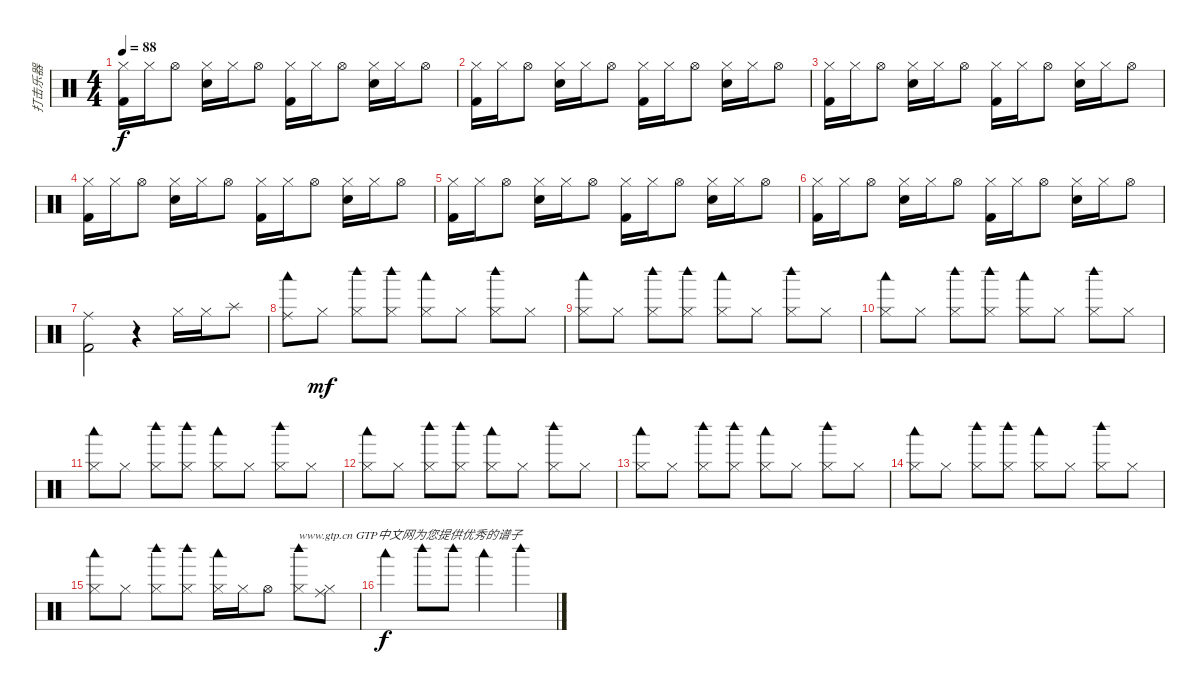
\track ("打击乐器" "打击乐器") {instrument percussion}
\staff {score}
\articulation defaults
\ts (4 4)
\tempo 88
\clef neutral
\ks c
("Hi-Hat (closed)" "Kick (hit) 2").16{dy f} "Hi-Hat (closed)".16 "Hi-Hat (open)".8 ("Hi-Hat (closed)" "Snare (hit) 2").16 "Hi-Hat (closed)".16 "Hi-Hat (open)".8 ("Hi-Hat (closed)" "Kick (hit) 2").16 "Hi-Hat (closed)".16 "Hi-Hat (open)".8 ("Hi-Hat (closed)" "Snare (hit) 2").16 "Hi-Hat (closed)".16 "Hi-Hat (open)".8 |
("Hi-Hat (closed)" "Kick (hit) 2").16 "Hi-Hat (closed)".16 "Hi-Hat (open)".8 ("Hi-Hat (closed)" "Snare (hit) 2").16 "Hi-Hat (closed)".16 "Hi-Hat (open)".8 ("Hi-Hat (closed)" "Kick (hit) 2").16 "Hi-Hat (closed)".16 "Hi-Hat (open)".8 ("Hi-Hat (closed)" "Snare (hit) 2").16 "Hi-Hat (closed)".16 "Hi-Hat (open)".8 |
("Hi-Hat (closed)" "Kick (hit) 2").16 "Hi-Hat (closed)".16 "Hi-Hat (open)".8 ("Hi-Hat (closed)" "Snare (hit) 2").16 "Hi-Hat (closed)".16 "Hi-Hat (open)".8 ("Hi-Hat (closed)" "Kick (hit) 2").16 "Hi-Hat (closed)".16 "Hi-Hat (open)".8 ("Hi-Hat (closed)" "Snare (hit) 2").16 "Hi-Hat (closed)".16 "Hi-Hat (open)".8 |
("Hi-Hat (closed)" "Kick (hit) 2").16 "Hi-Hat (closed)".16 "Hi-Hat (open)".8 ("Hi-Hat (closed)" "Snare (hit) 2").16 "Hi-Hat (closed)".16 "Hi-Hat (open)".8 ("Hi-Hat (closed)" "Kick (hit) 2").16 "Hi-Hat (closed)".16 "Hi-Hat (open)".8 ("Hi-Hat (closed)" "Snare (hit) 2").16 "Hi-Hat (closed)".16 "Hi-Hat (open)".8 |
("Hi-Hat (closed)" "Kick (hit) 2").16 "Hi-Hat (closed)".16 "Hi-Hat (open)".8 ("Hi-Hat (closed)" "Snare (hit) 2").16 "Hi-Hat (closed)".16 "Hi-Hat (open)".8 ("Hi-Hat (closed)" "Kick (hit) 2").16 "Hi-Hat (closed)".16 "Hi-Hat (open)".8 ("Hi-Hat (closed)" "Snare (hit) 2").16 "Hi-Hat (closed)".16 "Hi-Hat (open)".8 |
("Hi-Hat (closed)" "Kick (hit) 2").16 "Hi-Hat (closed)".16 "Hi-Hat (open)".8 ("Hi-Hat (closed)" "Snare (hit) 2").16 "Hi-Hat (closed)".16 "Hi-Hat (open)".8 ("Hi-Hat (closed)" "Kick (hit) 2").16 "Hi-Hat (closed)".16 "Hi-Hat (open)".8 ("Hi-Hat (closed)" "Snare (hit) 2").16 "Hi-Hat (closed)".16 "Hi-Hat (open)".8 |
("Ride (middle)" "Kick (hit) 2").2 r.4 "Hi-Hat (closed)".16 "Hi-Hat (closed)".16 "Splash (hit)".8 |
("Ride (middle)" "Woodblock low (hit)").8 "Hi-Hat (closed)".8{dy mf} ("Hi-Hat (closed)" "Woodblock high (hit)").8 ("Hi-Hat (closed)" "Woodblock high (hit)").8 ("Hi-Hat (closed)" "Woodblock low (hit)").8 "Hi-Hat (closed)".8 ("Hi-Hat (closed)" "Woodblock high (hit)").8 "Hi-Hat (closed)".8 |
("Hi-Hat (closed)" "Woodblock low (hit)").8 "Hi-Hat (closed)".8 ("Hi-Hat (closed)" "Woodblock high (hit)").8 ("Hi-Hat (closed)" "Woodblock high (hit)").8 ("Hi-Hat (closed)" "Woodblock low (hit)").8 "Hi-Hat (closed)".8 ("Hi-Hat (closed)" "Woodblock high (hit)").8 "Hi-Hat (closed)".8 |
("Hi-Hat (closed)" "Woodblock low (hit)").8 "Hi-Hat (closed)".8 ("Hi-Hat (closed)" "Woodblock high (hit)").8 ("Hi-Hat (closed)" "Woodblock high (hit)").8 ("Hi-Hat (closed)" "Woodblock low (hit)").8 "Hi-Hat (closed)".8 ("Hi-Hat (closed)" "Woodblock high (hit)").8 "Hi-Hat (closed)".8 |
("Hi-Hat (closed)" "Woodblock low (hit)").8 "Hi-Hat (closed)".8 ("Hi-Hat (closed)" "Woodblock high (hit)").8 ("Hi-Hat (closed)" "Woodblock high (hit)").8 ("Hi-Hat (closed)" "Woodblock low (hit)").8 "Hi-Hat (closed)".8 ("Hi-Hat (closed)" "Woodblock high (hit)").8 "Hi-Hat (closed)".8 |
("Hi-Hat (closed)" "Woodblock low (hit)").8 "Hi-Hat (closed)".8 ("Hi-Hat (closed)" "Woodblock high (hit)").8 ("Hi-Hat (closed)" "Woodblock high (hit)").8 ("Hi-Hat (closed)" "Woodblock low (hit)").8 "Hi-Hat (closed)".8 ("Hi-Hat (closed)" "Woodblock high (hit)").8 "Hi-Hat (closed)".8 |
("Hi-Hat (closed)" "Woodblock low (hit)").8 "Hi-Hat (closed)".8 ("Hi-Hat (closed)" "Woodblock high (hit)").8 ("Hi-Hat (closed)" "Woodblock high (hit)").8 ("Hi-Hat (closed)" "Woodblock low (hit)").8 "Hi-Hat (closed)".8 ("Hi-Hat (closed)" "Woodblock high (hit)").8 "Hi-Hat (closed)".8 |
("Hi-Hat (closed)" "Woodblock low (hit)").8 "Hi-Hat (closed)".8 ("Hi-Hat (closed)" "Woodblock high (hit)").8 ("Hi-Hat (closed)" "Woodblock high (hit)").8 ("Hi-Hat (closed)" "Woodblock low (hit)").8 "Hi-Hat (closed)".8 ("Hi-Hat (closed)" "Woodblock high (hit)").8 "Hi-Hat (closed)".8 |
("Hi-Hat (closed)" "Woodblock low (hit)").8 "Hi-Hat (closed)".8 ("Hi-Hat (closed)" "Woodblock high (hit)").8 ("Hi-Hat (closed)" "Woodblock high (hit)").8 ("Hi-Hat (closed)" "Woodblock low (hit)").16 "Hi-Hat (closed)".16 "Hi-Hat (open)".8 ("Hi-Hat (closed)" "Woodblock high (hit)").8{txt "www.gtp.cn GTP中文网为您提供优秀的谱子"} ("Hi-Hat (closed)" "Ride (middle)").8 |
"Woodblock low (hit)".4{dy f} "Woodblock high (hit)".8 "Woodblock high (hit)".8 "Woodblock low (hit)".4 "Woodblock high (hit)".4
